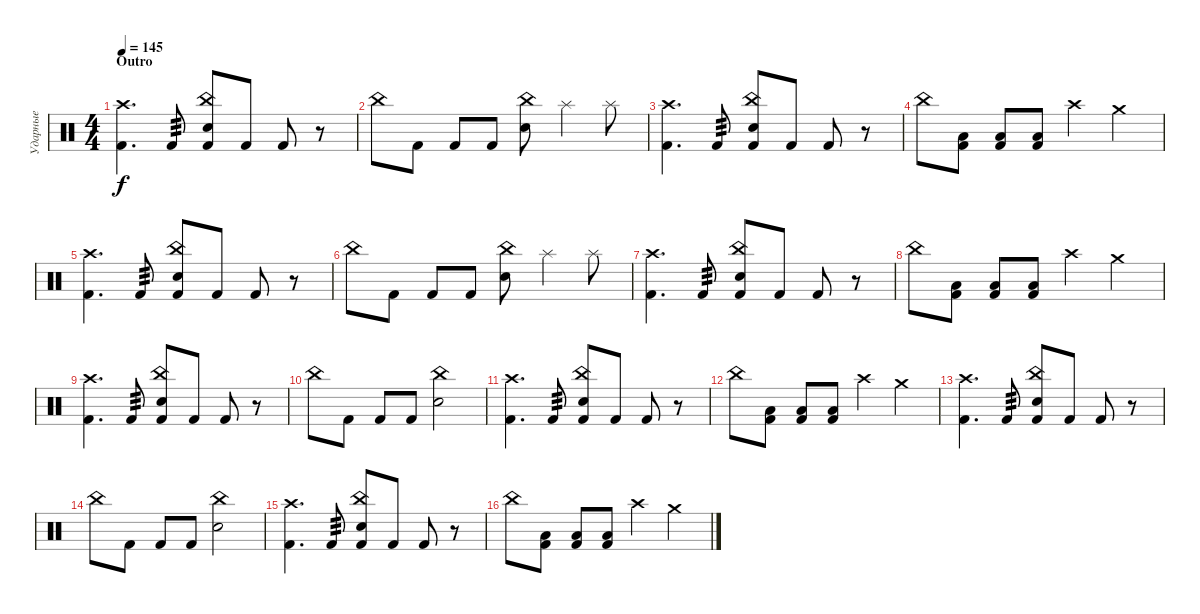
\track ("Ударные" "Ударные") {instrument percussion}
\staff {score}
\articulation defaults
\ts (4 4)
\section ("" "Outro")
\tempo 145
\clef neutral
\ks c
("Crash high (hit)" "Kick (hit) 2").4{d dy f} "Kick (hit) 2".8{tp 3} ("China (hit)" "Electric Snare (hit)" "Kick (hit) 2").8 "Kick (hit) 2".8 "Kick (hit) 2".8 r.8 |
"China (hit)".8 "Kick (hit) 2".8 "Kick (hit) 2".8 "Kick (hit) 2".8 ("China (hit)" "Electric Snare (hit)").8 "Splash (hit)".4 "Splash (hit)".8 |
("Crash high (hit)" "Kick (hit) 2").4{d} "Kick (hit) 2".8{tp 3} ("China (hit)" "Electric Snare (hit)" "Kick (hit) 2").8 "Kick (hit) 2".8 "Kick (hit) 2".8 r.8 |
"China (hit)".8 ("Low Tom (hit)" "Kick (hit) 2").8 ("Low Tom (hit)" "Kick (hit) 2").8 ("Low Tom (hit)" "Kick (hit) 2").8 "Crash high (hit)".4 "Crash medium (hit)".4 |
("Crash high (hit)" "Kick (hit) 2").4{d} "Kick (hit) 2".8{tp 3} ("China (hit)" "Electric Snare (hit)" "Kick (hit) 2").8 "Kick (hit) 2".8 "Kick (hit) 2".8 r.8 |
"China (hit)".8 "Kick (hit) 2".8 "Kick (hit) 2".8 "Kick (hit) 2".8 ("China (hit)" "Electric Snare (hit)").8 "Splash (hit)".4 "Splash (hit)".8 |
("Crash high (hit)" "Kick (hit) 2").4{d} "Kick (hit) 2".8{tp 3} ("China (hit)" "Electric Snare (hit)" "Kick (hit) 2").8 "Kick (hit) 2".8 "Kick (hit) 2".8 r.8 |
"China (hit)".8 ("Low Tom (hit)" "Kick (hit) 2").8 ("Low Tom (hit)" "Kick (hit) 2").8 ("Low Tom (hit)" "Kick (hit) 2").8 "Crash high (hit)".4 "Crash medium (hit)".4 |
("Crash high (hit)" "Kick (hit) 2").4{d} "Kick (hit) 2".8{tp 3} ("China (hit)" "Electric Snare (hit)" "Kick (hit) 2").8 "Kick (hit) 2".8 "Kick (hit) 2".8 r.8 |
"China (hit)".8 "Kick (hit) 2".8 "Kick (hit) 2".8 "Kick (hit) 2".8 ("China (hit)" "Electric Snare (hit)").2 |
("Crash high (hit)" "Kick (hit) 2").4{d} "Kick (hit) 2".8{tp 3} ("China (hit)" "Electric Snare (hit)" "Kick (hit) 2").8 "Kick (hit) 2".8 "Kick (hit) 2".8 r.8 |
"China (hit)".8 ("Low Tom (hit)" "Kick (hit) 2").8 ("Low Tom (hit)" "Kick (hit) 2").8 ("Low Tom (hit)" "Kick (hit) 2").8 "Crash high (hit)".4 "Crash medium (hit)".4 |
("Crash high (hit)" "Kick (hit) 2").4{d} "Kick (hit) 2".8{tp 3} ("China (hit)" "Electric Snare (hit)" "Kick (hit) 2").8 "Kick (hit) 2".8 "Kick (hit) 2".8 r.8 |
"China (hit)".8 "Kick (hit) 2".8 "Kick (hit) 2".8 "Kick (hit) 2".8 ("China (hit)" "Electric Snare (hit)").2 |
("Crash high (hit)" "Kick (hit) 2").4{d} "Kick (hit) 2".8{tp 3} ("China (hit)" "Electric Snare (hit)" "Kick (hit) 2").8 "Kick (hit) 2".8 "Kick (hit) 2".8 r.8 |
"China (hit)".8 ("Low Tom (hit)" "Kick (hit) 2").8 ("Low Tom (hit)" "Kick (hit) 2").8 ("Low Tom (hit)" "Kick (hit) 2").8 "Crash high (hit)".4 "Crash medium (hit)".4
